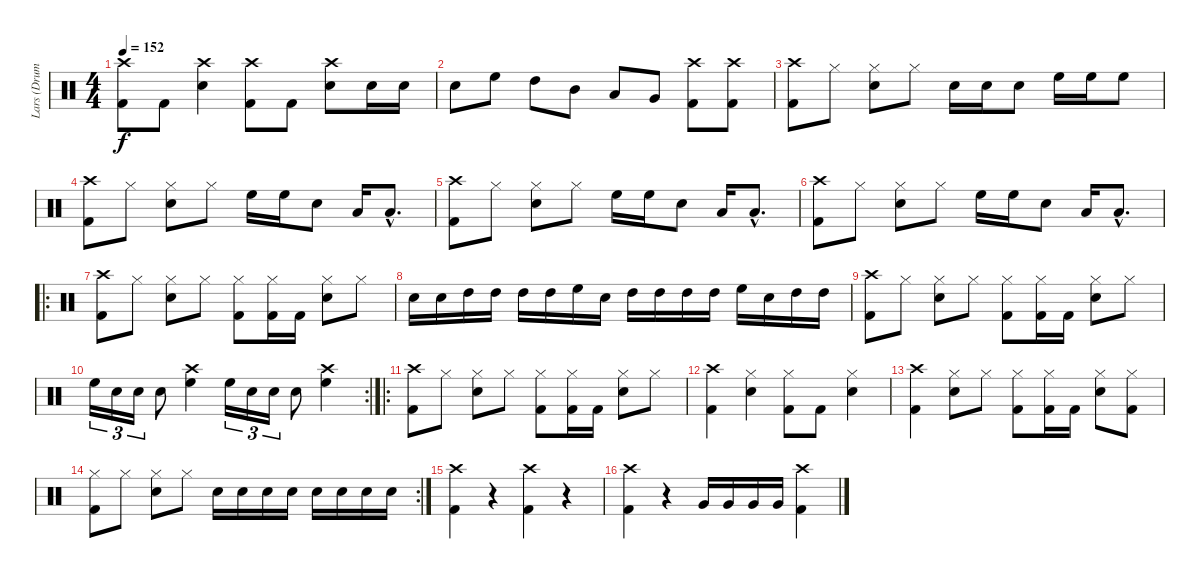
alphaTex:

\track ("Lars (Drums)" "Lars (Drum") {instrument percussion}
\staff {score}
\articulation defaults
\ts (4 4)
\tempo 152
\clef neutral
\ks c
("Crash high (hit)" "Kick (hit) 2").8{dy f} "Kick (hit) 2".8 ("Crash high (hit)" "Snare (hit) 2").4 ("Crash high (hit)" "Kick (hit) 2").8 "Kick (hit) 2".8 ("Crash high (hit)" "Snare (hit) 2").8 "Snare (hit) 2".16 "Snare (hit) 2".16 |
"Snare (hit) 2".8 "High Floor Tom (hit)".8 "High Tom (hit)".8 "Mid Tom (hit)".8 "Low Tom (hit)".8 "Very Low Tom (hit)".8 ("Crash high (hit)" "Kick (hit) 2").8 ("Crash high (hit)" "Kick (hit) 2").8 |
("Crash high (hit)" "Kick (hit) 2").8 "Hi-Hat (closed)".8 ("Hi-Hat (closed)" "Snare (hit) 2").8 "Hi-Hat (closed)".8 "Snare (hit) 2".16 "Snare (hit) 2".16 "Snare (hit) 2".8 "High Floor Tom (hit)".16 "High Floor Tom (hit)".16 "High Floor Tom (hit)".8 |
("Crash high (hit)" "Kick (hit) 2").8 "Hi-Hat (closed)".8 ("Hi-Hat (closed)" "Snare (hit) 2").8 "Hi-Hat (closed)".8 "High Floor Tom (hit)".16 "High Floor Tom (hit)".16 "Snare (hit) 2".8 "Low Tom (hit)".16 "Low Tom (hit)"{hac}.8{d} |
("Crash high (hit)" "Kick (hit) 2").8 "Hi-Hat (closed)".8 ("Hi-Hat (closed)" "Snare (hit) 2").8 "Hi-Hat (closed)".8 "High Floor Tom (hit)".16 "High Floor Tom (hit)".16 "Snare (hit) 2".8 "Low Tom (hit)".16 "Low Tom (hit)"{hac}.8{d} |
("Crash high (hit)" "Kick (hit) 2").8 "Hi-Hat (closed)".8 ("Hi-Hat (closed)" "Snare (hit) 2").8 "Hi-Hat (closed)".8 "High Floor Tom (hit)".16 "High Floor Tom (hit)".16 "Snare (hit) 2".8 "Low Tom (hit)".16 "Low Tom (hit)"{hac}.8{d} |
\ro
("Crash high (hit)" "Kick (hit) 2").8 "Hi-Hat (closed)".8 ("Hi-Hat (closed)" "Snare (hit) 2").8 "Hi-Hat (closed)".8 ("Hi-Hat (closed)" "Kick (hit) 2").8 ("Hi-Hat (closed)" "Kick (hit) 2").16 "Kick (hit) 2".16 ("Hi-Hat (closed)" "Snare (hit) 2").8 "Hi-Hat (closed)".8 |
"Snare (hit) 2".16 "Snare (hit) 2".16 "High Tom (hit)".16 "High Tom (hit)".16 "High Tom (hit)".16 "High Tom (hit)".16 "High Floor Tom (hit)".16 "Snare (hit) 2".16 "High Tom (hit)".16 "High Tom (hit)".16 "High Tom (hit)".16 "High Tom (hit)".16 "High Floor Tom (hit)".16 "Snare (hit) 2".16 "High Tom (hit)".16 "High Tom (hit)".16 |
("Crash high (hit)" "Kick (hit) 2").8 "Hi-Hat (closed)".8 ("Hi-Hat (closed)" "Snare (hit) 2").8 "Hi-Hat (closed)".8 ("Hi-Hat (closed)" "Kick (hit) 2").8 ("Hi-Hat (closed)" "Kick (hit) 2").16 "Kick (hit) 2".16 ("Hi-Hat (closed)" "Snare (hit) 2").8 "Hi-Hat (closed)".8 |
\rc 2 "High Floor Tom (hit)".16{tu (3 2)} "Snare (hit) 2".16{tu (3 2)} "Snare (hit) 2".16{tu (3 2)} "Snare (hit) 2".8
("Crash high (hit)" "High Floor Tom (hit)").4 "High Floor Tom (hit)".16{tu (3 2)} "Snare (hit) 2".16{tu (3 2)} "Snare (hit) 2".16{tu (3 2)} "Snare (hit) 2".8 ("Crash high (hit)" "High Floor Tom (hit)").4 |
\ro
("Crash high (hit)" "Kick (hit) 2").8 "Hi-Hat (closed)".8 ("Hi-Hat (closed)" "Snare (hit) 2").8 "Hi-Hat (closed)".8 ("Hi-Hat (closed)" "Kick (hit) 2").8 ("Hi-Hat (closed)" "Kick (hit) 2").16 "Kick (hit) 2".16 ("Hi-Hat (closed)" "Snare (hit) 2").8 "Hi-Hat (closed)".8 |
("Crash high (hit)" "Kick (hit) 2").4 ("Hi-Hat (closed)" "Snare (hit) 2").4 ("Hi-Hat (closed)" "Kick (hit) 2").8 "Kick (hit) 2".8 ("Hi-Hat (closed)" "Snare (hit) 2").4 |
("Crash high (hit)" "Kick (hit) 2").4 ("Hi-Hat (closed)" "Snare (hit) 2").8 "Hi-Hat (closed)".8 ("Hi-Hat (closed)" "Kick (hit) 2").8 ("Hi-Hat (closed)" "Kick (hit) 2").16 "Kick (hit) 2".16 ("Hi-Hat (closed)" "Snare (hit) 2").8 ("Hi-Hat (closed)" "Kick (hit) 2").8 |
\rc 2
("Hi-Hat (closed)" "Kick (hit) 2").8 "Hi-Hat (closed)".8 ("Hi-Hat (closed)" "Snare (hit) 2").8 "Hi-Hat (closed)".8 "Snare (hit) 2".16 "Snare (hit) 2".16 "Snare (hit) 2".16 "Snare (hit) 2".16 "Snare (hit) 2".16 "Snare (hit) 2".16 "Snare (hit) 2".16 "Snare (hit) 2".16 |
("Crash high (hit)" "Kick (hit) 2").4 r.4 ("Crash high (hit)" "Kick (hit) 2").4 r.4 |
("Crash high (hit)" "Kick (hit) 2").4 r.4 "Very Low Tom (hit)".16 "Very Low Tom (hit)".16 "Very Low Tom (hit)".16 "Very Low Tom (hit)".16 ("Crash high (hit)" "Kick (hit) 2").4
